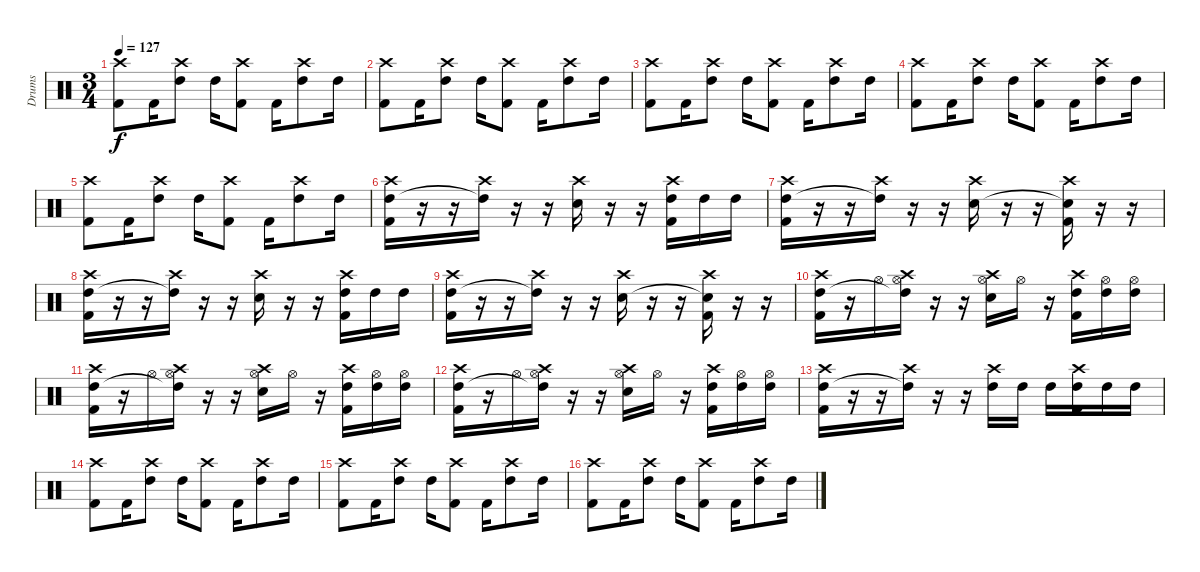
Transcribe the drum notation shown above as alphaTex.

\track ("Drums" "Drums") {instrument percussion}
\staff {score}
\articulation defaults
\ts (3 4)
\tempo 127
\clef neutral
\ks c
("Crash high (hit)" "Kick (hit) 2").8{dy f} "Kick (hit) 2".16 ("Crash high (hit)" "High Tom (hit)").8 "High Tom (hit)".16 ("Crash high (hit)" "Kick (hit) 2").8 "Kick (hit) 2".16 ("Crash high (hit)" "High Tom (hit)").8 "High Tom (hit)".16 |
("Crash high (hit)" "Kick (hit) 2").8 "Kick (hit) 2".16 ("Crash high (hit)" "High Tom (hit)").8 "High Tom (hit)".16 ("Crash high (hit)" "Kick (hit) 2").8 "Kick (hit) 2".16 ("Crash high (hit)" "High Tom (hit)").8 "High Tom (hit)".16 |
("Crash high (hit)" "Kick (hit) 2").8 "Kick (hit) 2".16 ("Crash high (hit)" "High Tom (hit)").8 "High Tom (hit)".16 ("Crash high (hit)" "Kick (hit) 2").8 "Kick (hit) 2".16 ("Crash high (hit)" "High Tom (hit)").8 "High Tom (hit)".16 |
("Crash high (hit)" "Kick (hit) 2").8 "Kick (hit) 2".16 ("Crash high (hit)" "High Tom (hit)").8 "High Tom (hit)".16 ("Crash high (hit)" "Kick (hit) 2").8 "Kick (hit) 2".16 ("Crash high (hit)" "High Tom (hit)").8 "High Tom (hit)".16 |
("Crash high (hit)" "Kick (hit) 2").8 "Kick (hit) 2".16 ("Crash high (hit)" "High Tom (hit)").8 "High Tom (hit)".16 ("Crash high (hit)" "Kick (hit) 2").8 "Kick (hit) 2".16 ("Crash high (hit)" "High Tom (hit)").8 "High Tom (hit)".16 |
("Crash high (hit)" "High Tom (hit)" "Kick (hit) 2").16 r.16 r.16 ("Crash high (hit)" "High Tom (hit)"{t}).16 r.16 r.16 ("Crash high (hit)" "Electric Snare (hit)").16 r.16 r.16 ("Crash high (hit)" "High Tom (hit)" "Kick (hit) 2").16 "High Tom (hit)".16 "High Tom (hit)".16 |
("Crash high (hit)" "High Tom (hit)" "Kick (hit) 2").16 r.16 r.16 ("Crash high (hit)" "High Tom (hit)"{t}).16 r.16 r.16 ("Crash high (hit)" "Electric Snare (hit)").16 r.16 r.16 ("Crash high (hit)" "Electric Snare (hit)"{t} "Kick (hit) 2").16 r.16 r.16 |
("Crash high (hit)" "High Tom (hit)" "Kick (hit) 2").16 r.16 r.16 ("Crash high (hit)" "High Tom (hit)"{t}).16 r.16 r.16 ("Crash high (hit)" "Electric Snare (hit)").16 r.16 r.16 ("Crash high (hit)" "High Tom (hit)" "Kick (hit) 2").16 "High Tom (hit)".16 "High Tom (hit)".16 |
("Crash high (hit)" "High Tom (hit)" "Kick (hit) 2").16 r.16 r.16 ("Crash high (hit)" "High Tom (hit)"{t}).16 r.16 r.16 ("Crash high (hit)" "Electric Snare (hit)").16 r.16 r.16 ("Crash high (hit)" "Electric Snare (hit)"{t} "Kick (hit) 2").16 r.16 r.16 |
("Crash high (hit)" "High Tom (hit)" "Kick (hit) 2").16 r.16 "Hi-Hat (open)".16 ("Crash high (hit)" "High Tom (hit)"{t} "Hi-Hat (open)").16 r.16 r.16 ("Crash high (hit)" "Electric Snare (hit)" "Hi-Hat (open)").16 "Hi-Hat (open)".16 r.16 ("Crash high (hit)" "High Tom (hit)" "Kick (hit) 2").16 ("High Tom (hit)" "Hi-Hat (open)").16 ("High Tom (hit)" "Hi-Hat (open)").16 |
("Crash high (hit)" "High Tom (hit)" "Kick (hit) 2").16 r.16 "Hi-Hat (open)".16 ("Crash high (hit)" "High Tom (hit)"{t} "Hi-Hat (open)").16 r.16 r.16 ("Crash high (hit)" "Electric Snare (hit)" "Hi-Hat (open)").16 "Hi-Hat (open)".16 r.16 ("Crash high (hit)" "High Tom (hit)" "Kick (hit) 2").16 ("High Tom (hit)" "Hi-Hat (open)").16 ("High Tom (hit)" "Hi-Hat (open)").16 |
("Crash high (hit)" "High Tom (hit)" "Kick (hit) 2").16 r.16 "Hi-Hat (open)".16 ("Crash high (hit)" "High Tom (hit)"{t} "Hi-Hat (open)").16 r.16 r.16 ("Crash high (hit)" "Electric Snare (hit)" "Hi-Hat (open)").16 "Hi-Hat (open)".16 r.16 ("Crash high (hit)" "High Tom (hit)" "Kick (hit) 2").16 ("High Tom (hit)" "Hi-Hat (open)").16 ("High Tom (hit)" "Hi-Hat (open)").16 |
("Crash high (hit)" "High Tom (hit)" "Kick (hit) 2").16 r.16 r.16 ("Crash high (hit)" "High Tom (hit)"{t}).16 r.16 r.16 ("Crash high (hit)" "High Tom (hit)").16 "High Tom (hit)".16 "High Tom (hit)".16 ("Crash high (hit)" "High Tom (hit)" "Kick (hit) 2").16 "High Tom (hit)".16 "High Tom (hit)".16 |
("Crash high (hit)" "Kick (hit) 2").8 "Kick (hit) 2".16 ("Crash high (hit)" "High Tom (hit)").8 "High Tom (hit)".16 ("Crash high (hit)" "Kick (hit) 2").8 "Kick (hit) 2".16 ("Crash high (hit)" "High Tom (hit)").8 "High Tom (hit)".16 |
("Crash high (hit)" "Kick (hit) 2").8 "Kick (hit) 2".16 ("Crash high (hit)" "High Tom (hit)").8 "High Tom (hit)".16 ("Crash high (hit)" "Kick (hit) 2").8 "Kick (hit) 2".16 ("Crash high (hit)" "High Tom (hit)").8 "High Tom (hit)".16 |
("Crash high (hit)" "Kick (hit) 2").8 "Kick (hit) 2".16 ("Crash high (hit)" "High Tom (hit)").8 "High Tom (hit)".16 ("Crash high (hit)" "Kick (hit) 2").8 "Kick (hit) 2".16 ("Crash high (hit)" "High Tom (hit)").8 "High Tom (hit)".16
